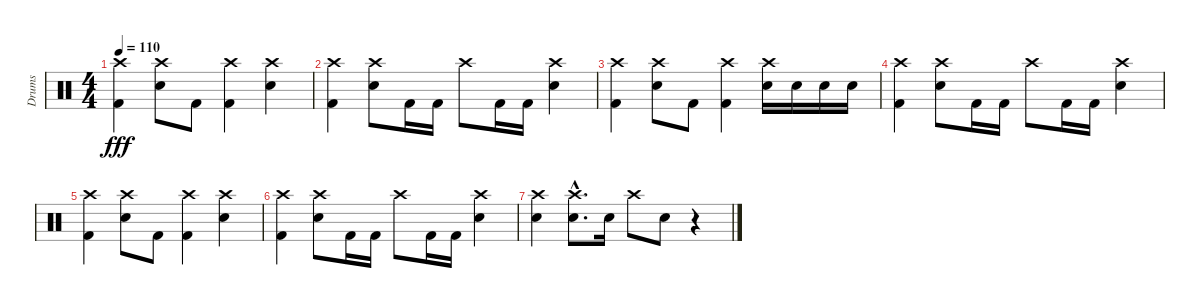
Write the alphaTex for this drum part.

\track ("Drums" "Drums") {instrument percussion}
\staff {score}
\articulation defaults
\ts (4 4)
\tempo 110
\clef neutral
\ks c
("Crash high (hit)" "Kick (hit) 2").4{dy fff} ("Crash high (hit)" "Electric Snare (hit)").8 "Kick (hit) 2".8 ("Crash high (hit)" "Kick (hit) 2").4 ("Crash high (hit)" "Electric Snare (hit)").4 |
("Crash high (hit)" "Kick (hit) 2").4 ("Crash high (hit)" "Electric Snare (hit)").8 "Kick (hit) 2".16 "Kick (hit) 2".16 "Crash high (hit)".8 "Kick (hit) 2".16 "Kick (hit) 2".16 ("Crash high (hit)" "Electric Snare (hit)").4 |
("Crash high (hit)" "Kick (hit) 2").4 ("Crash high (hit)" "Electric Snare (hit)").8 "Kick (hit) 2".8 ("Crash high (hit)" "Kick (hit) 2").4 ("Crash high (hit)" "Electric Snare (hit)").16 "Electric Snare (hit)".16 "Electric Snare (hit)".16 "Electric Snare (hit)".16 |
("Crash high (hit)" "Kick (hit) 2").4 ("Crash high (hit)" "Electric Snare (hit)").8 "Kick (hit) 2".16 "Kick (hit) 2".16 "Crash high (hit)".8 "Kick (hit) 2".16 "Kick (hit) 2".16 ("Crash high (hit)" "Electric Snare (hit)").4 |
("Crash high (hit)" "Kick (hit) 2").4 ("Crash high (hit)" "Electric Snare (hit)").8 "Kick (hit) 2".8 ("Crash high (hit)" "Kick (hit) 2").4 ("Crash high (hit)" "Electric Snare (hit)").4 |
("Crash high (hit)" "Kick (hit) 2").4 ("Crash high (hit)" "Electric Snare (hit)").8 "Kick (hit) 2".16 "Kick (hit) 2".16 "Crash high (hit)".8 "Kick (hit) 2".16 "Kick (hit) 2".16 ("Crash high (hit)" "Electric Snare (hit)").4 |
("Crash high (hit)" "Electric Snare (hit)").4 ("Crash high (hit)"{hac} "Electric Snare (hit)"{hac}).8{d} "Electric Snare (hit)".16 "Crash high (hit)".8 "Electric Snare (hit)".8 r.4
